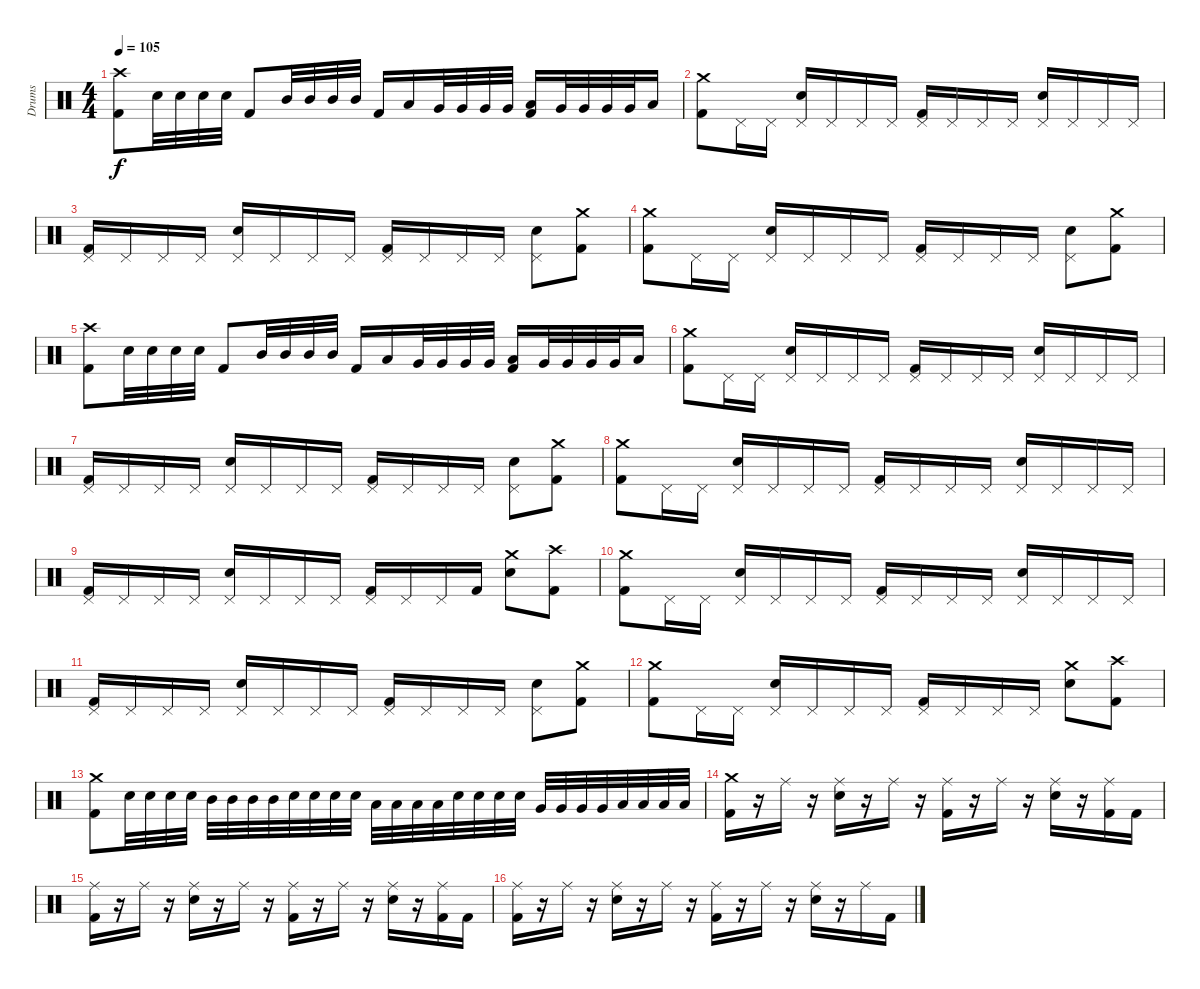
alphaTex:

\track ("Drums" "Drums") {instrument percussion}
\staff {score}
\articulation defaults
\ts (4 4)
\tempo 105
\clef neutral
\ks c
("Crash high (hit)" "Kick (hit) 2").8{dy f} "Electric Snare (hit)".32 "Electric Snare (hit)".32 "Electric Snare (hit)".32 "Electric Snare (hit)".32 "Kick (hit) 2".8 "Mid Tom (hit)".32 "Mid Tom (hit)".32 "Mid Tom (hit)".32 "Mid Tom (hit)".32 "Kick (hit) 2".16 "Low Tom (hit)".16 "Very Low Tom (hit)".32 "Very Low Tom (hit)".32 "Very Low Tom (hit)".32 "Very Low Tom (hit)".32 ("Low Tom (hit)" "Kick (hit) 2").16 "Very Low Tom (hit)".32 "Very Low Tom (hit)".32 "Very Low Tom (hit)".32 "Very Low Tom (hit)".32 "Low Floor Tom (hit)".16 |
("Crash medium (hit)" "Kick (hit) 2").8 "Pedal Hi-Hat (hit)".16 "Pedal Hi-Hat (hit)".16 ("Pedal Hi-Hat (hit)" "Electric Snare (hit)").16 "Pedal Hi-Hat (hit)".16 "Pedal Hi-Hat (hit)".16 "Pedal Hi-Hat (hit)".16 ("Pedal Hi-Hat (hit)" "Kick (hit) 2").16 "Pedal Hi-Hat (hit)".16 "Pedal Hi-Hat (hit)".16 "Pedal Hi-Hat (hit)".16 ("Pedal Hi-Hat (hit)" "Electric Snare (hit)").16 "Pedal Hi-Hat (hit)".16 "Pedal Hi-Hat (hit)".16 "Pedal Hi-Hat (hit)".16 |
("Pedal Hi-Hat (hit)" "Kick (hit) 2").16 "Pedal Hi-Hat (hit)".16 "Pedal Hi-Hat (hit)".16 "Pedal Hi-Hat (hit)".16 ("Pedal Hi-Hat (hit)" "Electric Snare (hit)").16 "Pedal Hi-Hat (hit)".16 "Pedal Hi-Hat (hit)".16 "Pedal Hi-Hat (hit)".16 ("Pedal Hi-Hat (hit)" "Kick (hit) 2").16 "Pedal Hi-Hat (hit)".16 "Pedal Hi-Hat (hit)".16 "Pedal Hi-Hat (hit)".16 ("Pedal Hi-Hat (hit)" "Electric Snare (hit)").8 ("Crash medium (hit)" "Kick (hit) 2").8 |
("Crash medium (hit)" "Kick (hit) 2").8 "Pedal Hi-Hat (hit)".16 "Pedal Hi-Hat (hit)".16 ("Pedal Hi-Hat (hit)" "Electric Snare (hit)").16 "Pedal Hi-Hat (hit)".16 "Pedal Hi-Hat (hit)".16 "Pedal Hi-Hat (hit)".16 ("Pedal Hi-Hat (hit)" "Kick (hit) 2").16 "Pedal Hi-Hat (hit)".16 "Pedal Hi-Hat (hit)".16 "Pedal Hi-Hat (hit)".16 ("Pedal Hi-Hat (hit)" "Electric Snare (hit)").8 ("Crash medium (hit)" "Kick (hit) 2").8 |
("Crash high (hit)" "Kick (hit) 2").8 "Electric Snare (hit)".32 "Electric Snare (hit)".32 "Electric Snare (hit)".32 "Electric Snare (hit)".32 "Kick (hit) 2".8 "Mid Tom (hit)".32 "Mid Tom (hit)".32 "Mid Tom (hit)".32 "Mid Tom (hit)".32 "Kick (hit) 2".16 "Low Tom (hit)".16 "Very Low Tom (hit)".32 "Very Low Tom (hit)".32 "Very Low Tom (hit)".32 "Very Low Tom (hit)".32 ("Low Tom (hit)" "Kick (hit) 2").16 "Very Low Tom (hit)".32 "Very Low Tom (hit)".32 "Very Low Tom (hit)".32 "Very Low Tom (hit)".32 "Low Floor Tom (hit)".16 |
("Crash medium (hit)" "Kick (hit) 2").8 "Pedal Hi-Hat (hit)".16 "Pedal Hi-Hat (hit)".16 ("Pedal Hi-Hat (hit)" "Electric Snare (hit)").16 "Pedal Hi-Hat (hit)".16 "Pedal Hi-Hat (hit)".16 "Pedal Hi-Hat (hit)".16 ("Pedal Hi-Hat (hit)" "Kick (hit) 2").16 "Pedal Hi-Hat (hit)".16 "Pedal Hi-Hat (hit)".16 "Pedal Hi-Hat (hit)".16 ("Pedal Hi-Hat (hit)" "Electric Snare (hit)").16 "Pedal Hi-Hat (hit)".16 "Pedal Hi-Hat (hit)".16 "Pedal Hi-Hat (hit)".16 |
("Pedal Hi-Hat (hit)" "Kick (hit) 2").16 "Pedal Hi-Hat (hit)".16 "Pedal Hi-Hat (hit)".16 "Pedal Hi-Hat (hit)".16 ("Pedal Hi-Hat (hit)" "Electric Snare (hit)").16 "Pedal Hi-Hat (hit)".16 "Pedal Hi-Hat (hit)".16 "Pedal Hi-Hat (hit)".16 ("Pedal Hi-Hat (hit)" "Kick (hit) 2").16 "Pedal Hi-Hat (hit)".16 "Pedal Hi-Hat (hit)".16 "Pedal Hi-Hat (hit)".16 ("Pedal Hi-Hat (hit)" "Electric Snare (hit)").8 ("Crash medium (hit)" "Kick (hit) 2").8 |
("Crash medium (hit)" "Kick (hit) 2").8 "Pedal Hi-Hat (hit)".16 "Pedal Hi-Hat (hit)".16 ("Pedal Hi-Hat (hit)" "Electric Snare (hit)").16 "Pedal Hi-Hat (hit)".16 "Pedal Hi-Hat (hit)".16 "Pedal Hi-Hat (hit)".16 ("Pedal Hi-Hat (hit)" "Kick (hit) 2").16 "Pedal Hi-Hat (hit)".16 "Pedal Hi-Hat (hit)".16 "Pedal Hi-Hat (hit)".16 ("Pedal Hi-Hat (hit)" "Electric Snare (hit)").16 "Pedal Hi-Hat (hit)".16 "Pedal Hi-Hat (hit)".16 "Pedal Hi-Hat (hit)".16 |
("Pedal Hi-Hat (hit)" "Kick (hit) 2").16 "Pedal Hi-Hat (hit)".16 "Pedal Hi-Hat (hit)".16 "Pedal Hi-Hat (hit)".16 ("Pedal Hi-Hat (hit)" "Electric Snare (hit)").16 "Pedal Hi-Hat (hit)".16 "Pedal Hi-Hat (hit)".16 "Pedal Hi-Hat (hit)".16 ("Pedal Hi-Hat (hit)" "Kick (hit) 2").16 "Pedal Hi-Hat (hit)".16 "Pedal Hi-Hat (hit)".16 "Kick (hit) 2".16 ("Crash medium (hit)" "Electric Snare (hit)").8 ("Crash high (hit)" "Kick (hit) 2").8 |
("Crash medium (hit)" "Kick (hit) 2").8 "Pedal Hi-Hat (hit)".16 "Pedal Hi-Hat (hit)".16 ("Pedal Hi-Hat (hit)" "Electric Snare (hit)").16 "Pedal Hi-Hat (hit)".16 "Pedal Hi-Hat (hit)".16 "Pedal Hi-Hat (hit)".16 ("Pedal Hi-Hat (hit)" "Kick (hit) 2").16 "Pedal Hi-Hat (hit)".16 "Pedal Hi-Hat (hit)".16 "Pedal Hi-Hat (hit)".16 ("Pedal Hi-Hat (hit)" "Electric Snare (hit)").16 "Pedal Hi-Hat (hit)".16 "Pedal Hi-Hat (hit)".16 "Pedal Hi-Hat (hit)".16 |
("Pedal Hi-Hat (hit)" "Kick (hit) 2").16 "Pedal Hi-Hat (hit)".16 "Pedal Hi-Hat (hit)".16 "Pedal Hi-Hat (hit)".16 ("Pedal Hi-Hat (hit)" "Electric Snare (hit)").16 "Pedal Hi-Hat (hit)".16 "Pedal Hi-Hat (hit)".16 "Pedal Hi-Hat (hit)".16 ("Pedal Hi-Hat (hit)" "Kick (hit) 2").16 "Pedal Hi-Hat (hit)".16 "Pedal Hi-Hat (hit)".16 "Pedal Hi-Hat (hit)".16 ("Pedal Hi-Hat (hit)" "Electric Snare (hit)").8 ("Crash medium (hit)" "Kick (hit) 2").8 |
("Crash medium (hit)" "Kick (hit) 2").8 "Pedal Hi-Hat (hit)".16 "Pedal Hi-Hat (hit)".16 ("Pedal Hi-Hat (hit)" "Electric Snare (hit)").16 "Pedal Hi-Hat (hit)".16 "Pedal Hi-Hat (hit)".16 "Pedal Hi-Hat (hit)".16 ("Pedal Hi-Hat (hit)" "Kick (hit) 2").16 "Pedal Hi-Hat (hit)".16 "Pedal Hi-Hat (hit)".16 "Pedal Hi-Hat (hit)".16 ("Crash medium (hit)" "Electric Snare (hit)").8 ("Crash high (hit)" "Kick (hit) 2").8 |
("Crash medium (hit)" "Kick (hit) 2").8 "Electric Snare (hit)".32 "Electric Snare (hit)".32 "Electric Snare (hit)".32 "Electric Snare (hit)".32 "Mid Tom (hit)".32 "Mid Tom (hit)".32 "Mid Tom (hit)".32 "Mid Tom (hit)".32 "Electric Snare (hit)".32 "Electric Snare (hit)".32 "Electric Snare (hit)".32 "Electric Snare (hit)".32 "Low Tom (hit)".32 "Low Tom (hit)".32 "Low Tom (hit)".32 "Low Tom (hit)".32 "Electric Snare (hit)".32 "Electric Snare (hit)".32 "Electric Snare (hit)".32 "Electric Snare (hit)".32 "Very Low Tom (hit)".32 "Very Low Tom (hit)".32 "Very Low Tom (hit)".32 "Very Low Tom (hit)".32 "Low Floor Tom (hit)".32 "Low Floor Tom (hit)".32 "Low Floor Tom (hit)".32 "Low Floor Tom (hit)".32 |
\section ("" "")
("Crash medium (hit)" "Kick (hit) 2").16 r.16 "Ride (middle)".16 r.16 ("Ride (middle)" "Electric Snare (hit)").16 r.16 "Ride (middle)".16 r.16 ("Ride (middle)" "Kick (hit) 2").16 r.16 "Ride (middle)".16 r.16 ("Ride (middle)" "Electric Snare (hit)").16 r.16 ("Ride (middle)" "Kick (hit) 2").16 "Kick (hit) 2".16 |
("Ride (middle)" "Kick (hit) 2").16 r.16 "Ride (middle)".16 r.16 ("Ride (middle)" "Electric Snare (hit)").16 r.16 "Ride (middle)".16 r.16 ("Ride (middle)" "Kick (hit) 2").16 r.16 "Ride (middle)".16 r.16 ("Ride (middle)" "Electric Snare (hit)").16 r.16 ("Ride (middle)" "Kick (hit) 2").16 "Kick (hit) 2".16 |
("Ride (middle)" "Kick (hit) 2").16 r.16 "Ride (middle)".16 r.16 ("Ride (middle)" "Electric Snare (hit)").16 r.16 "Ride (middle)".16 r.16 ("Ride (middle)" "Kick (hit) 2").16 r.16 "Ride (middle)".16 r.16 ("Ride (middle)" "Electric Snare (hit)").16 r.16 "Ride (middle)".16 "Kick (hit) 2".16
